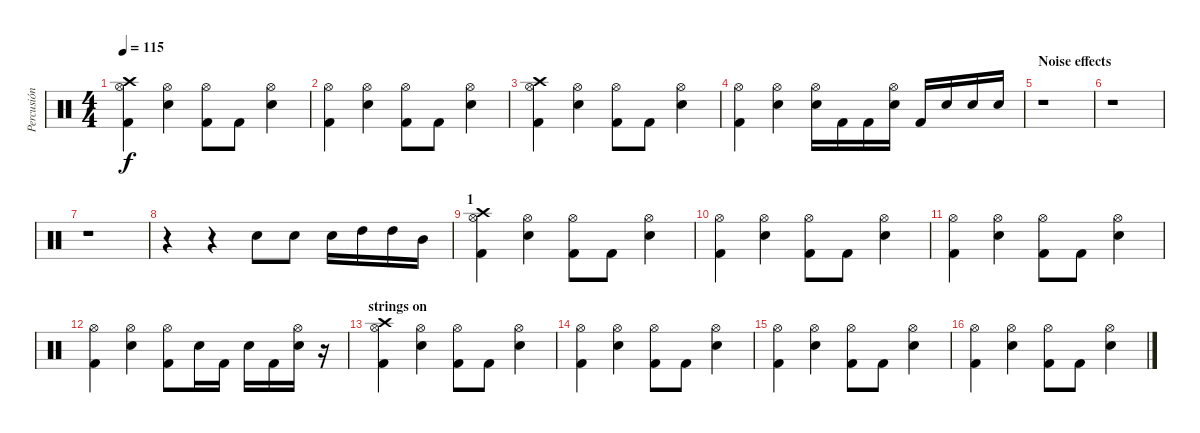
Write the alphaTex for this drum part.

\track ("Percusión" "Percusión") {instrument percussion}
\staff {score}
\articulation defaults
\ts (4 4)
\tempo 115
\clef neutral
\ks c
("Crash high (hit)" "Hi-Hat (open)" "Kick (hit) 2").4{dy f} ("Hi-Hat (open)" "Electric Snare (hit)").4 ("Hi-Hat (open)" "Kick (hit) 2").8 "Kick (hit) 2".8 ("Hi-Hat (open)" "Electric Snare (hit)").4 |
("Hi-Hat (open)" "Kick (hit) 2").4 ("Hi-Hat (open)" "Electric Snare (hit)").4 ("Hi-Hat (open)" "Kick (hit) 2").8 "Kick (hit) 2".8 ("Hi-Hat (open)" "Electric Snare (hit)").4 |
("Crash high (hit)" "Hi-Hat (open)" "Kick (hit) 2").4 ("Hi-Hat (open)" "Electric Snare (hit)").4 ("Hi-Hat (open)" "Kick (hit) 2").8 "Kick (hit) 2".8 ("Hi-Hat (open)" "Electric Snare (hit)").4 |
("Hi-Hat (open)" "Kick (hit) 2").4 ("Hi-Hat (open)" "Electric Snare (hit)").4 ("Hi-Hat (open)" "Electric Snare (hit)").16 "Kick (hit) 2".16 "Kick (hit) 2".16 ("Hi-Hat (open)" "Electric Snare (hit)").16 "Kick (hit) 2".16 "Electric Snare (hit)".16 "Electric Snare (hit)".16 "Electric Snare (hit)".16 |
\section ("" "Noise effects")
r.1 |
r.1 |
r.1 |
r.4 r.4 "Electric Snare (hit)".8 "Electric Snare (hit)".8 "Electric Snare (hit)".16 "High Tom (hit)".16 "High Tom (hit)".16 "Mid Tom (hit)".16 |
\section ("" "1")
("Crash high (hit)" "Hi-Hat (open)" "Kick (hit) 2").4 ("Hi-Hat (open)" "Electric Snare (hit)").4 ("Hi-Hat (open)" "Kick (hit) 2").8 "Kick (hit) 2".8 ("Hi-Hat (open)" "Electric Snare (hit)").4 |
("Hi-Hat (open)" "Kick (hit) 2").4 ("Hi-Hat (open)" "Electric Snare (hit)").4 ("Hi-Hat (open)" "Kick (hit) 2").8 "Kick (hit) 2".8 ("Hi-Hat (open)" "Electric Snare (hit)").4 |
("Hi-Hat (open)" "Kick (hit) 2").4 ("Hi-Hat (open)" "Electric Snare (hit)").4 ("Hi-Hat (open)" "Kick (hit) 2").8 "Kick (hit) 2".8 ("Hi-Hat (open)" "Electric Snare (hit)").4 |
("Hi-Hat (open)" "Kick (hit) 2").4 ("Hi-Hat (open)" "Electric Snare (hit)").4 ("Hi-Hat (open)" "Kick (hit) 2").8 "Electric Snare (hit)".16 "Kick (hit) 2".16 "Electric Snare (hit)".16 "Kick (hit) 2".16 ("Hi-Hat (open)" "Electric Snare (hit)").16 r.16 |
\section ("" "strings on")
("Crash high (hit)" "Hi-Hat (open)" "Kick (hit) 2").4 ("Hi-Hat (open)" "Electric Snare (hit)").4 ("Hi-Hat (open)" "Kick (hit) 2").8 "Kick (hit) 2".8 ("Hi-Hat (open)" "Electric Snare (hit)").4 |
("Hi-Hat (open)" "Kick (hit) 2").4 ("Hi-Hat (open)" "Electric Snare (hit)").4 ("Hi-Hat (open)" "Kick (hit) 2").8 "Kick (hit) 2".8 ("Hi-Hat (open)" "Electric Snare (hit)").4 |
("Hi-Hat (open)" "Kick (hit) 2").4 ("Hi-Hat (open)" "Electric Snare (hit)").4 ("Hi-Hat (open)" "Kick (hit) 2").8 "Kick (hit) 2".8 ("Hi-Hat (open)" "Electric Snare (hit)").4 |
("Hi-Hat (open)" "Kick (hit) 2").4 ("Hi-Hat (open)" "Electric Snare (hit)").4 ("Hi-Hat (open)" "Kick (hit) 2").8 "Kick (hit) 2".8 ("Hi-Hat (open)" "Electric Snare (hit)").4
